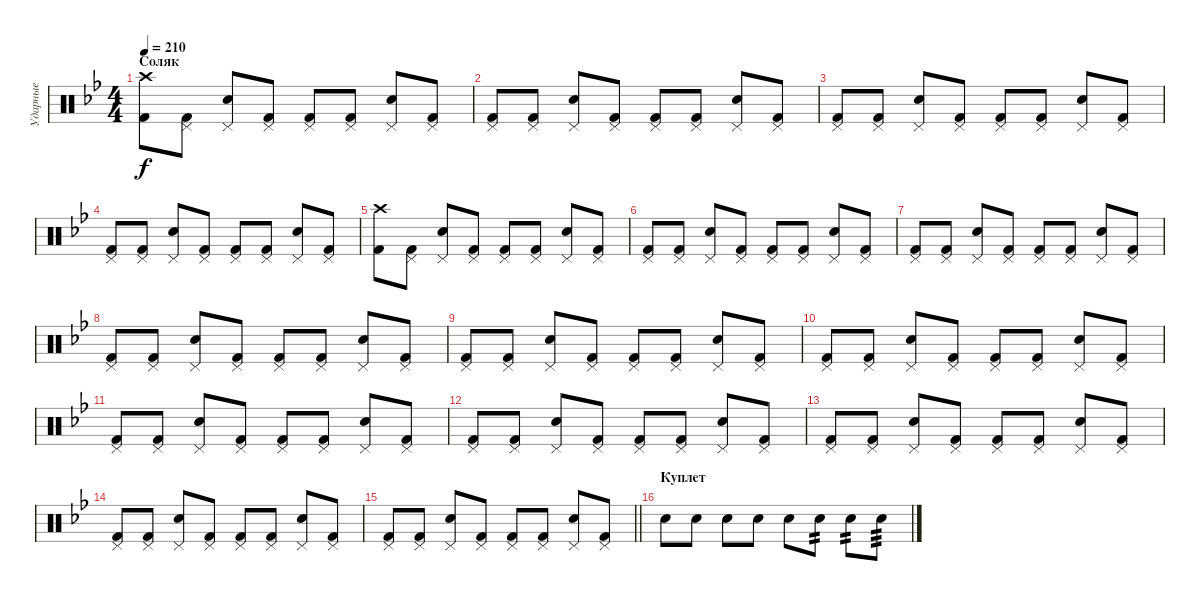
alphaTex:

\track ("Ударные" "Ударные") {instrument percussion}
\staff {score}
\articulation defaults
\ts (4 4)
\section ("" "Соляк")
\tempo 210
\clef neutral
\ks bb
("Crash high (hit)" "Kick (hit) 2").8{dy f} ("Pedal Hi-Hat (hit)" "Kick (hit) 2").8 ("Pedal Hi-Hat (hit)" "Electric Snare (hit)").8 ("Pedal Hi-Hat (hit)" "Kick (hit) 2").8 ("Pedal Hi-Hat (hit)" "Kick (hit) 2").8 ("Pedal Hi-Hat (hit)" "Kick (hit) 2").8 ("Pedal Hi-Hat (hit)" "Electric Snare (hit)").8 ("Pedal Hi-Hat (hit)" "Kick (hit) 2").8 |
("Pedal Hi-Hat (hit)" "Kick (hit) 2").8 ("Pedal Hi-Hat (hit)" "Kick (hit) 2").8 ("Pedal Hi-Hat (hit)" "Electric Snare (hit)").8 ("Pedal Hi-Hat (hit)" "Kick (hit) 2").8 ("Pedal Hi-Hat (hit)" "Kick (hit) 2").8 ("Pedal Hi-Hat (hit)" "Kick (hit) 2").8 ("Pedal Hi-Hat (hit)" "Electric Snare (hit)").8 ("Pedal Hi-Hat (hit)" "Kick (hit) 2").8 |
("Pedal Hi-Hat (hit)" "Kick (hit) 2").8 ("Pedal Hi-Hat (hit)" "Kick (hit) 2").8 ("Pedal Hi-Hat (hit)" "Electric Snare (hit)").8 ("Pedal Hi-Hat (hit)" "Kick (hit) 2").8 ("Pedal Hi-Hat (hit)" "Kick (hit) 2").8 ("Pedal Hi-Hat (hit)" "Kick (hit) 2").8 ("Pedal Hi-Hat (hit)" "Electric Snare (hit)").8 ("Pedal Hi-Hat (hit)" "Kick (hit) 2").8 |
("Pedal Hi-Hat (hit)" "Kick (hit) 2").8 ("Pedal Hi-Hat (hit)" "Kick (hit) 2").8 ("Pedal Hi-Hat (hit)" "Electric Snare (hit)").8 ("Pedal Hi-Hat (hit)" "Kick (hit) 2").8 ("Pedal Hi-Hat (hit)" "Kick (hit) 2").8 ("Pedal Hi-Hat (hit)" "Kick (hit) 2").8 ("Pedal Hi-Hat (hit)" "Electric Snare (hit)").8 ("Pedal Hi-Hat (hit)" "Kick (hit) 2").8 |
("Crash high (hit)" "Kick (hit) 2").8 ("Pedal Hi-Hat (hit)" "Kick (hit) 2").8 ("Pedal Hi-Hat (hit)" "Electric Snare (hit)").8 ("Pedal Hi-Hat (hit)" "Kick (hit) 2").8 ("Pedal Hi-Hat (hit)" "Kick (hit) 2").8 ("Pedal Hi-Hat (hit)" "Kick (hit) 2").8 ("Pedal Hi-Hat (hit)" "Electric Snare (hit)").8 ("Pedal Hi-Hat (hit)" "Kick (hit) 2").8 |
("Pedal Hi-Hat (hit)" "Kick (hit) 2").8 ("Pedal Hi-Hat (hit)" "Kick (hit) 2").8 ("Pedal Hi-Hat (hit)" "Electric Snare (hit)").8 ("Pedal Hi-Hat (hit)" "Kick (hit) 2").8 ("Pedal Hi-Hat (hit)" "Kick (hit) 2").8 ("Pedal Hi-Hat (hit)" "Kick (hit) 2").8 ("Pedal Hi-Hat (hit)" "Electric Snare (hit)").8 ("Pedal Hi-Hat (hit)" "Kick (hit) 2").8 |
("Pedal Hi-Hat (hit)" "Kick (hit) 2").8 ("Pedal Hi-Hat (hit)" "Kick (hit) 2").8 ("Pedal Hi-Hat (hit)" "Electric Snare (hit)").8 ("Pedal Hi-Hat (hit)" "Kick (hit) 2").8 ("Pedal Hi-Hat (hit)" "Kick (hit) 2").8 ("Pedal Hi-Hat (hit)" "Kick (hit) 2").8 ("Pedal Hi-Hat (hit)" "Electric Snare (hit)").8 ("Pedal Hi-Hat (hit)" "Kick (hit) 2").8 |
("Pedal Hi-Hat (hit)" "Kick (hit) 2").8 ("Pedal Hi-Hat (hit)" "Kick (hit) 2").8 ("Pedal Hi-Hat (hit)" "Electric Snare (hit)").8 ("Pedal Hi-Hat (hit)" "Kick (hit) 2").8 ("Pedal Hi-Hat (hit)" "Kick (hit) 2").8 ("Pedal Hi-Hat (hit)" "Kick (hit) 2").8 ("Pedal Hi-Hat (hit)" "Electric Snare (hit)").8 ("Pedal Hi-Hat (hit)" "Kick (hit) 2").8 |
("Pedal Hi-Hat (hit)" "Kick (hit) 2").8 ("Pedal Hi-Hat (hit)" "Kick (hit) 2").8 ("Pedal Hi-Hat (hit)" "Electric Snare (hit)").8 ("Pedal Hi-Hat (hit)" "Kick (hit) 2").8 ("Pedal Hi-Hat (hit)" "Kick (hit) 2").8 ("Pedal Hi-Hat (hit)" "Kick (hit) 2").8 ("Pedal Hi-Hat (hit)" "Electric Snare (hit)").8 ("Pedal Hi-Hat (hit)" "Kick (hit) 2").8 |
("Pedal Hi-Hat (hit)" "Kick (hit) 2").8 ("Pedal Hi-Hat (hit)" "Kick (hit) 2").8 ("Pedal Hi-Hat (hit)" "Electric Snare (hit)").8 ("Pedal Hi-Hat (hit)" "Kick (hit) 2").8 ("Pedal Hi-Hat (hit)" "Kick (hit) 2").8 ("Pedal Hi-Hat (hit)" "Kick (hit) 2").8 ("Pedal Hi-Hat (hit)" "Electric Snare (hit)").8 ("Pedal Hi-Hat (hit)" "Kick (hit) 2").8 |
("Pedal Hi-Hat (hit)" "Kick (hit) 2").8 ("Pedal Hi-Hat (hit)" "Kick (hit) 2").8 ("Pedal Hi-Hat (hit)" "Electric Snare (hit)").8 ("Pedal Hi-Hat (hit)" "Kick (hit) 2").8 ("Pedal Hi-Hat (hit)" "Kick (hit) 2").8 ("Pedal Hi-Hat (hit)" "Kick (hit) 2").8 ("Pedal Hi-Hat (hit)" "Electric Snare (hit)").8 ("Pedal Hi-Hat (hit)" "Kick (hit) 2").8 |
("Pedal Hi-Hat (hit)" "Kick (hit) 2").8 ("Pedal Hi-Hat (hit)" "Kick (hit) 2").8 ("Pedal Hi-Hat (hit)" "Electric Snare (hit)").8 ("Pedal Hi-Hat (hit)" "Kick (hit) 2").8 ("Pedal Hi-Hat (hit)" "Kick (hit) 2").8 ("Pedal Hi-Hat (hit)" "Kick (hit) 2").8 ("Pedal Hi-Hat (hit)" "Electric Snare (hit)").8 ("Pedal Hi-Hat (hit)" "Kick (hit) 2").8 |
("Pedal Hi-Hat (hit)" "Kick (hit) 2").8 ("Pedal Hi-Hat (hit)" "Kick (hit) 2").8 ("Pedal Hi-Hat (hit)" "Electric Snare (hit)").8 ("Pedal Hi-Hat (hit)" "Kick (hit) 2").8 ("Pedal Hi-Hat (hit)" "Kick (hit) 2").8 ("Pedal Hi-Hat (hit)" "Kick (hit) 2").8 ("Pedal Hi-Hat (hit)" "Electric Snare (hit)").8 ("Pedal Hi-Hat (hit)" "Kick (hit) 2").8 |
("Pedal Hi-Hat (hit)" "Kick (hit) 2").8 ("Pedal Hi-Hat (hit)" "Kick (hit) 2").8 ("Pedal Hi-Hat (hit)" "Electric Snare (hit)").8 ("Pedal Hi-Hat (hit)" "Kick (hit) 2").8 ("Pedal Hi-Hat (hit)" "Kick (hit) 2").8 ("Pedal Hi-Hat (hit)" "Kick (hit) 2").8 ("Pedal Hi-Hat (hit)" "Electric Snare (hit)").8 ("Pedal Hi-Hat (hit)" "Kick (hit) 2").8 |
\barLineRight lightlight
("Pedal Hi-Hat (hit)" "Kick (hit) 2").8 ("Pedal Hi-Hat (hit)" "Kick (hit) 2").8 ("Pedal Hi-Hat (hit)" "Electric Snare (hit)").8 ("Pedal Hi-Hat (hit)" "Kick (hit) 2").8 ("Pedal Hi-Hat (hit)" "Kick (hit) 2").8 ("Pedal Hi-Hat (hit)" "Kick (hit) 2").8 ("Pedal Hi-Hat (hit)" "Electric Snare (hit)").8 ("Pedal Hi-Hat (hit)" "Kick (hit) 2").8 |
\section ("" "Куплет")
"Electric Snare (hit)".8 "Electric Snare (hit)".8 "Electric Snare (hit)".8 "Electric Snare (hit)".8 "Electric Snare (hit)".8 "Electric Snare (hit)".8{tp 2} "Electric Snare (hit)".8{tp 2} "Electric Snare (hit)".8{tp 3}
